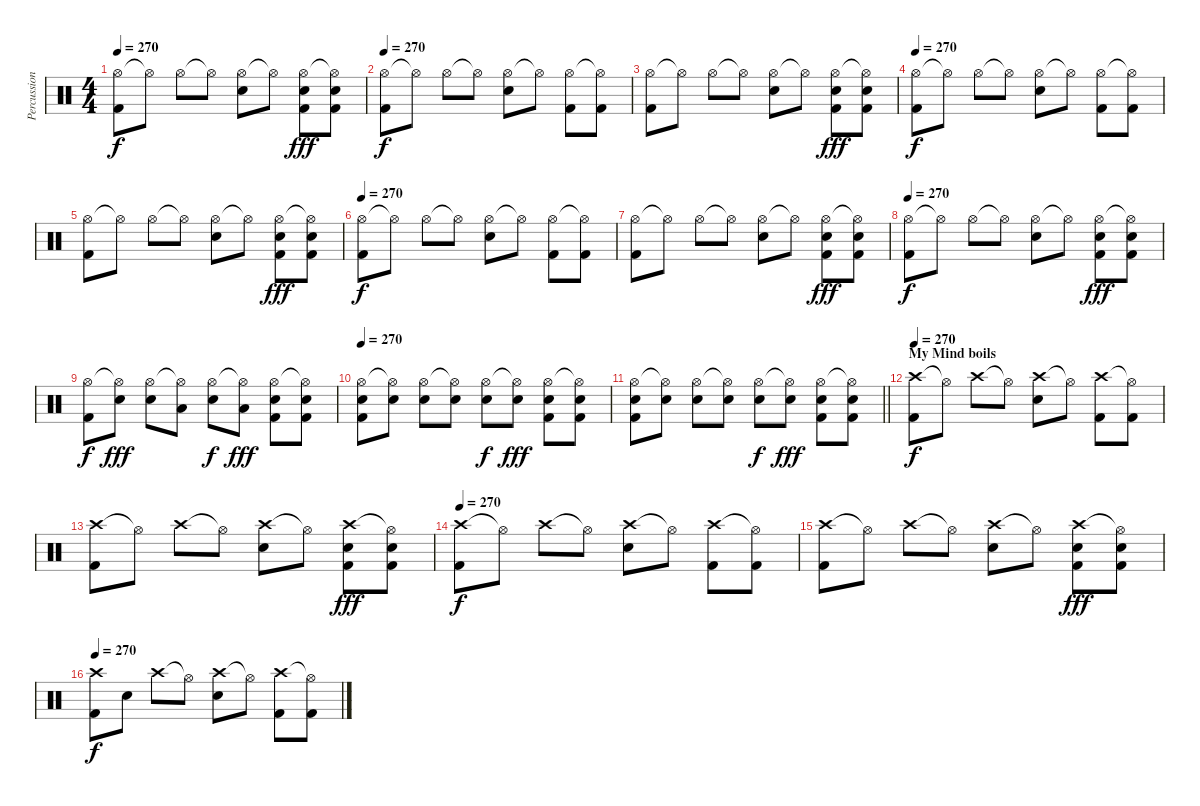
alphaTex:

\track ("Percussion" "Percussion") {instrument percussion}
\staff {score}
\articulation defaults
\ts (4 4)
\tempo 270
\clef neutral
\ks c
("Hi-Hat (open)" "Kick (hit) 2").8{dy f} "Hi-Hat (open)"{t}.8 "Hi-Hat (open)".8 "Hi-Hat (open)"{t}.8 ("Hi-Hat (open)" "Electric Snare (hit)").8 "Hi-Hat (open)"{t}.8 ("Hi-Hat (open)" "Electric Snare (hit)" "Kick (hit) 2").8{dy fff} ("Hi-Hat (open)"{t} "Electric Snare (hit)" "Kick (hit) 2").8 |
\tempo 270
("Hi-Hat (open)" "Kick (hit) 2").8{dy f} "Hi-Hat (open)"{t}.8 "Hi-Hat (open)".8 "Hi-Hat (open)"{t}.8 ("Hi-Hat (open)" "Electric Snare (hit)").8 "Hi-Hat (open)"{t}.8 ("Hi-Hat (open)" "Kick (hit) 2").8 ("Hi-Hat (open)"{t} "Kick (hit) 2").8 |
("Hi-Hat (open)" "Kick (hit) 2").8 "Hi-Hat (open)"{t}.8 "Hi-Hat (open)".8 "Hi-Hat (open)"{t}.8 ("Hi-Hat (open)" "Electric Snare (hit)").8 "Hi-Hat (open)"{t}.8 ("Hi-Hat (open)" "Electric Snare (hit)" "Kick (hit) 2").8{dy fff} ("Hi-Hat (open)"{t} "Electric Snare (hit)" "Kick (hit) 2").8 |
\tempo 270
("Hi-Hat (open)" "Kick (hit) 2").8{dy f} "Hi-Hat (open)"{t}.8 "Hi-Hat (open)".8 "Hi-Hat (open)"{t}.8 ("Hi-Hat (open)" "Electric Snare (hit)").8 "Hi-Hat (open)"{t}.8 ("Hi-Hat (open)" "Kick (hit) 2").8 ("Hi-Hat (open)"{t} "Kick (hit) 2").8 |
("Hi-Hat (open)" "Kick (hit) 2").8 "Hi-Hat (open)"{t}.8 "Hi-Hat (open)".8 "Hi-Hat (open)"{t}.8 ("Hi-Hat (open)" "Electric Snare (hit)").8 "Hi-Hat (open)"{t}.8 ("Hi-Hat (open)" "Electric Snare (hit)" "Kick (hit) 2").8{dy fff} ("Hi-Hat (open)"{t} "Electric Snare (hit)" "Kick (hit) 2").8 |
\tempo 270
("Hi-Hat (open)" "Kick (hit) 2").8{dy f} "Hi-Hat (open)"{t}.8 "Hi-Hat (open)".8 "Hi-Hat (open)"{t}.8 ("Hi-Hat (open)" "Electric Snare (hit)").8 "Hi-Hat (open)"{t}.8 ("Hi-Hat (open)" "Kick (hit) 2").8 ("Hi-Hat (open)"{t} "Kick (hit) 2").8 |
("Hi-Hat (open)" "Kick (hit) 2").8 "Hi-Hat (open)"{t}.8 "Hi-Hat (open)".8 "Hi-Hat (open)"{t}.8 ("Hi-Hat (open)" "Electric Snare (hit)").8 "Hi-Hat (open)"{t}.8 ("Hi-Hat (open)" "Electric Snare (hit)" "Kick (hit) 2").8{dy fff} ("Hi-Hat (open)"{t} "Electric Snare (hit)" "Kick (hit) 2").8 |
\tempo 270
("Hi-Hat (open)" "Kick (hit) 2").8{dy f} "Hi-Hat (open)"{t}.8 "Hi-Hat (open)".8 "Hi-Hat (open)"{t}.8 ("Hi-Hat (open)" "Electric Snare (hit)").8 "Hi-Hat (open)"{t}.8 ("Hi-Hat (open)" "Electric Snare (hit)" "Kick (hit) 2").8{dy fff} ("Hi-Hat (open)"{t} "Electric Snare (hit)" "Kick (hit) 2").8 |
("Hi-Hat (open)" "Kick (hit) 2").8{dy f} ("Hi-Hat (open)"{t} "Electric Snare (hit)").8{dy fff} ("Hi-Hat (open)" "Electric Snare (hit)").8 ("Hi-Hat (open)"{t} "Low Floor Tom (hit)").8 ("Hi-Hat (open)" "Electric Snare (hit)").8{dy f} ("Hi-Hat (open)"{t} "Low Floor Tom (hit)").8{dy fff} ("Hi-Hat (open)" "Electric Snare (hit)" "Kick (hit) 2").8 ("Hi-Hat (open)"{t} "Electric Snare (hit)" "Kick (hit) 2").8 |
\tempo 270
("Hi-Hat (open)" "Electric Snare (hit)" "Kick (hit) 2").8 ("Hi-Hat (open)"{t} "Electric Snare (hit)").8 ("Hi-Hat (open)" "Electric Snare (hit)").8 ("Hi-Hat (open)"{t} "Electric Snare (hit)").8 ("Hi-Hat (open)" "Electric Snare (hit)").8{dy f} ("Hi-Hat (open)"{t} "Electric Snare (hit)").8{dy fff} ("Hi-Hat (open)" "Electric Snare (hit)" "Kick (hit) 2").8 ("Hi-Hat (open)"{t} "Electric Snare (hit)" "Kick (hit) 2").8 |
\barLineRight lightlight
("Hi-Hat (open)" "Electric Snare (hit)" "Kick (hit) 2").8 ("Hi-Hat (open)"{t} "Electric Snare (hit)").8 ("Hi-Hat (open)" "Electric Snare (hit)").8 ("Hi-Hat (open)"{t} "Electric Snare (hit)").8 ("Hi-Hat (open)" "Electric Snare (hit)").8{dy f} ("Hi-Hat (open)"{t} "Electric Snare (hit)").8{dy fff} ("Hi-Hat (open)" "Electric Snare (hit)" "Kick (hit) 2").8 ("Hi-Hat (open)"{t} "Electric Snare (hit)" "Kick (hit) 2").8 |
\section ("" "My Mind boils")
\tempo 270
("Crash high (hit)" "Kick (hit) 2").8{dy f} "Hi-Hat (open)"{t}.8 "Crash high (hit)".8 "Hi-Hat (open)"{t}.8 ("Crash high (hit)" "Electric Snare (hit)").8 "Hi-Hat (open)"{t}.8 ("Crash high (hit)" "Kick (hit) 2").8 ("Hi-Hat (open)"{t} "Kick (hit) 2").8 |
("Crash high (hit)" "Kick (hit) 2").8 "Hi-Hat (open)"{t}.8 "Crash high (hit)".8 "Hi-Hat (open)"{t}.8 ("Crash high (hit)" "Electric Snare (hit)").8 "Hi-Hat (open)"{t}.8 ("Crash high (hit)" "Electric Snare (hit)" "Kick (hit) 2").8{dy fff} ("Hi-Hat (open)"{t} "Electric Snare (hit)" "Kick (hit) 2").8 |
\tempo 270
("Crash high (hit)" "Kick (hit) 2").8{dy f} "Hi-Hat (open)"{t}.8 "Crash high (hit)".8 "Hi-Hat (open)"{t}.8 ("Crash high (hit)" "Electric Snare (hit)").8 "Hi-Hat (open)"{t}.8 ("Crash high (hit)" "Kick (hit) 2").8 ("Hi-Hat (open)"{t} "Kick (hit) 2").8 |
("Crash high (hit)" "Kick (hit) 2").8 "Hi-Hat (open)"{t}.8 "Crash high (hit)".8 "Hi-Hat (open)"{t}.8 ("Crash high (hit)" "Electric Snare (hit)").8 "Hi-Hat (open)"{t}.8 ("Crash high (hit)" "Electric Snare (hit)" "Kick (hit) 2").8{dy fff} ("Hi-Hat (open)"{t} "Electric Snare (hit)" "Kick (hit) 2").8 |
\tempo 270
("Crash high (hit)" "Kick (hit) 2").8{dy f} "Snare (hit)".8 "Crash high (hit)".8 "Hi-Hat (open)"{t}.8 ("Crash high (hit)" "Electric Snare (hit)").8 "Hi-Hat (open)"{t}.8 ("Crash high (hit)" "Kick (hit) 2").8 ("Hi-Hat (open)"{t} "Kick (hit) 2").8
